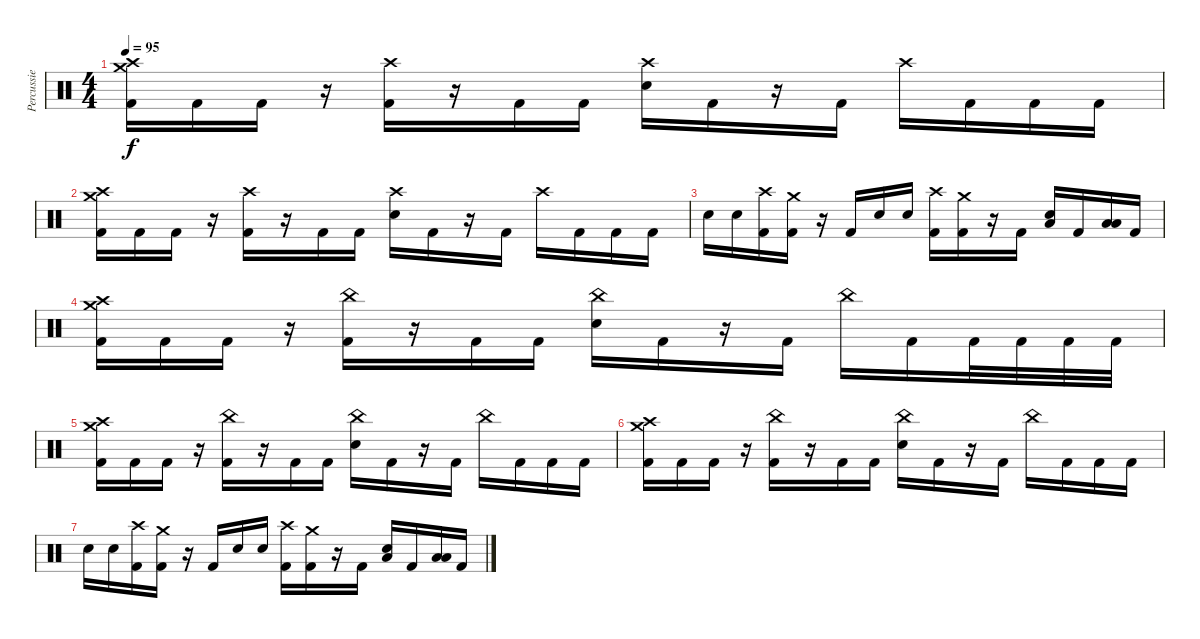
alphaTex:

\track ("Percussie" "Percussie") {instrument percussion}
\staff {score}
\articulation defaults
\ts (4 4)
\tempo 95
\clef neutral
\ks c
("Crash medium (hit)" "Crash high (hit)" "Kick (hit) 2").16{dy f} "Kick (hit) 2".16 "Kick (hit) 2".16 r.16 ("Crash high (hit)" "Kick (hit) 2").16 r.16 "Kick (hit) 2".16 "Kick (hit) 2".16 ("Crash high (hit)" "Electric Snare (hit)").16 "Kick (hit) 2".16 r.16 "Kick (hit) 2".16 "Crash high (hit)".16 "Kick (hit) 2".16 "Kick (hit) 2".16 "Kick (hit) 2".16 |
("Crash medium (hit)" "Crash high (hit)" "Kick (hit) 2").16 "Kick (hit) 2".16 "Kick (hit) 2".16 r.16 ("Crash high (hit)" "Kick (hit) 2").16 r.16 "Kick (hit) 2".16 "Kick (hit) 2".16 ("Crash high (hit)" "Electric Snare (hit)").16 "Kick (hit) 2".16 r.16 "Kick (hit) 2".16 "Crash high (hit)".16 "Kick (hit) 2".16 "Kick (hit) 2".16 "Kick (hit) 2".16 |
"Electric Snare (hit)".16 "Electric Snare (hit)".16 ("Crash high (hit)" "Kick (hit) 2").16 ("Crash medium (hit)" "Kick (hit) 2").16 r.16 "Kick (hit) 2".16 "Electric Snare (hit)".16 "Electric Snare (hit)".16 ("Crash high (hit)" "Kick (hit) 2").16 ("Crash medium (hit)" "Kick (hit) 2").16 r.16 "Kick (hit) 2".16 ("Low Floor Tom (hit)" "Electric Snare (hit)").16 "Kick (hit) 2".16 ("Low Tom (hit)" "Low Floor Tom (hit)").16 "Kick (hit) 2".16 |
("Crash medium (hit)" "Crash high (hit)" "Kick (hit) 2").16 "Kick (hit) 2".16 "Kick (hit) 2".16 r.16 ("China (hit)" "Kick (hit) 2").16 r.16 "Kick (hit) 2".16 "Kick (hit) 2".16 ("China (hit)" "Electric Snare (hit)").16 "Kick (hit) 2".16 r.16 "Kick (hit) 2".16 "China (hit)".16 "Kick (hit) 2".16 "Kick (hit) 2".32 "Kick (hit) 2".32 "Kick (hit) 2".32 "Kick (hit) 2".32 |
("Crash medium (hit)" "Crash high (hit)" "Kick (hit) 2").16 "Kick (hit) 2".16 "Kick (hit) 2".16 r.16 ("China (hit)" "Kick (hit) 2").16 r.16 "Kick (hit) 2".16 "Kick (hit) 2".16 ("China (hit)" "Electric Snare (hit)").16 "Kick (hit) 2".16 r.16 "Kick (hit) 2".16 "China (hit)".16 "Kick (hit) 2".16 "Kick (hit) 2".16 "Kick (hit) 2".16 |
("Crash medium (hit)" "Crash high (hit)" "Kick (hit) 2").16 "Kick (hit) 2".16 "Kick (hit) 2".16 r.16 ("China (hit)" "Kick (hit) 2").16 r.16 "Kick (hit) 2".16 "Kick (hit) 2".16 ("China (hit)" "Electric Snare (hit)").16 "Kick (hit) 2".16 r.16 "Kick (hit) 2".16 "China (hit)".16 "Kick (hit) 2".16 "Kick (hit) 2".16 "Kick (hit) 2".16 |
"Electric Snare (hit)".16 "Electric Snare (hit)".16 ("Crash high (hit)" "Kick (hit) 2").16 ("Crash medium (hit)" "Kick (hit) 2").16 r.16 "Kick (hit) 2".16 "Electric Snare (hit)".16 "Electric Snare (hit)".16 ("Crash high (hit)" "Kick (hit) 2").16 ("Crash medium (hit)" "Kick (hit) 2").16 r.16 "Kick (hit) 2".16 ("Low Floor Tom (hit)" "Electric Snare (hit)").16 "Kick (hit) 2".16 ("Low Tom (hit)" "Low Floor Tom (hit)").16 "Kick (hit) 2".16
